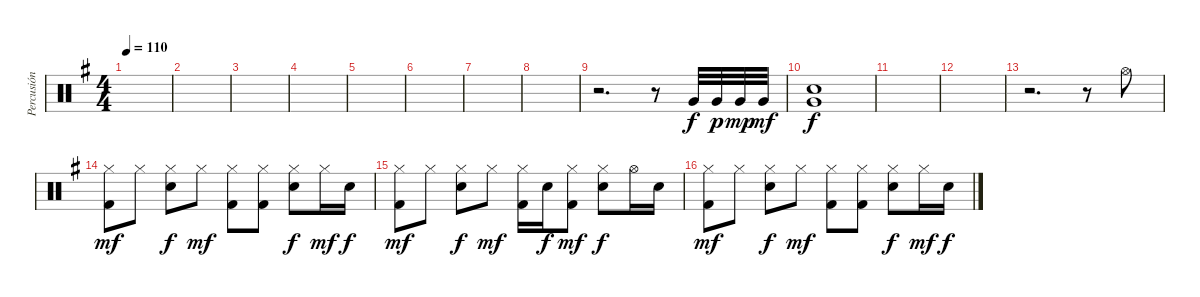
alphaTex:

\track ("Percusión" "Percusión") {instrument percussion}
\staff {score}
\articulation defaults
\ts (4 4)
\tempo 110
\clef neutral
\ks g
|
|
|
|
|
|
|
|
r.2{d} r.8 "Very Low Tom (hit)".32 "Very Low Tom (hit)".32{dy p} "Very Low Tom (hit)".32{dy mp} "Very Low Tom (hit)".32{dy mf} |
("Snare (hit) 2" "Very Low Tom (hit)").1{dy f} |
|
|
r.2{d} r.8 "Hi-Hat (open)".8 |
("Hi-Hat (closed)" "Kick (hit) 2").8{dy mf} "Hi-Hat (closed)".8 ("Hi-Hat (closed)" "Electric Snare (hit)").8{dy f} "Hi-Hat (closed)".8{dy mf} ("Hi-Hat (closed)" "Kick (hit) 2").8 ("Hi-Hat (closed)" "Kick (hit) 2").8 ("Hi-Hat (closed)" "Electric Snare (hit)").8{dy f} "Hi-Hat (closed)".16{dy mf} "Electric Snare (hit)".16{dy f} |
("Hi-Hat (closed)" "Kick (hit) 2").8{dy mf} "Hi-Hat (closed)".8 ("Hi-Hat (closed)" "Electric Snare (hit)").8{dy f} "Hi-Hat (closed)".8{dy mf} ("Hi-Hat (closed)" "Kick (hit) 2").16 "Electric Snare (hit)".16{dy f} ("Hi-Hat (closed)" "Kick (hit) 2").8{dy mf} ("Hi-Hat (closed)" "Electric Snare (hit)").8{dy f} "Hi-Hat (open)".16 "Electric Snare (hit)".16 |
("Hi-Hat (closed)" "Kick (hit) 2").8{dy mf} "Hi-Hat (closed)".8 ("Hi-Hat (closed)" "Electric Snare (hit)").8{dy f} "Hi-Hat (closed)".8{dy mf} ("Hi-Hat (closed)" "Kick (hit) 2").8 ("Hi-Hat (closed)" "Kick (hit) 2").8 ("Hi-Hat (closed)" "Electric Snare (hit)").8{dy f} "Hi-Hat (closed)".16{dy mf} "Electric Snare (hit)".16{dy f}
